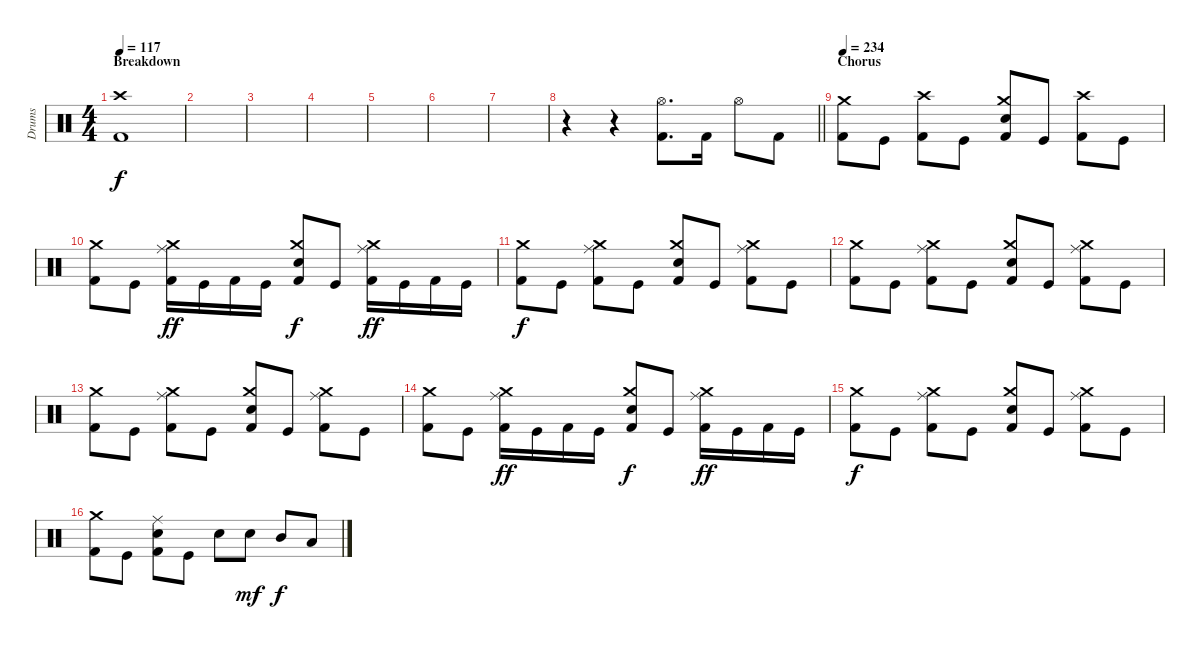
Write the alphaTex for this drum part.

\track ("Drums" "Drums") {instrument percussion}
\staff {score}
\articulation defaults
\ts (4 4)
\section ("" "Breakdown")
\tempo 117
\clef neutral
\ks c
("Crash high (hit)" "Kick (hit) 2").1{dy f} |
|
|
|
|
|
|
\barLineRight lightlight
r.4 r.4 ("Hi-Hat (open)" "Kick (hit) 2").8{d} "Kick (hit) 2".16 "Hi-Hat (open)".8 "Kick (hit) 2".8 |
\section ("" "Chorus")
\tempo 234
("Crash medium (hit)" "Kick (hit) 2").8 "Kick (hit)".8 ("Crash high (hit)" "Kick (hit) 2").8 "Kick (hit)".8 ("Crash medium (hit)" "Snare (hit) 2" "Kick (hit) 2").8 "Kick (hit)".8 ("Crash high (hit)" "Kick (hit) 2").8 "Kick (hit)".8 |
("Crash medium (hit)" "Kick (hit) 2").8 "Kick (hit)".8 ("Crash medium (hit)" "Ride (middle)" "Kick (hit) 2").16{dy ff} "Kick (hit)".16 "Kick (hit) 2".16 "Kick (hit)".16 ("Crash medium (hit)" "Snare (hit) 2" "Kick (hit) 2").8{dy f} "Kick (hit)".8 ("Crash medium (hit)" "Ride (middle)" "Kick (hit) 2").16{dy ff} "Kick (hit)".16 "Kick (hit) 2".16 "Kick (hit)".16 |
("Crash medium (hit)" "Kick (hit) 2").8{dy f} "Kick (hit)".8 ("Crash medium (hit)" "Ride (middle)" "Kick (hit) 2").8 "Kick (hit)".8 ("Crash medium (hit)" "Snare (hit) 2" "Kick (hit) 2").8 "Kick (hit)".8 ("Crash medium (hit)" "Ride (middle)" "Kick (hit) 2").8 "Kick (hit)".8 |
("Crash medium (hit)" "Kick (hit) 2").8 "Kick (hit)".8 ("Crash medium (hit)" "Ride (middle)" "Kick (hit) 2").8 "Kick (hit)".8 ("Crash medium (hit)" "Snare (hit) 2" "Kick (hit) 2").8 "Kick (hit)".8 ("Crash medium (hit)" "Ride (middle)" "Kick (hit) 2").8 "Kick (hit)".8 |
("Crash medium (hit)" "Kick (hit) 2").8 "Kick (hit)".8 ("Crash medium (hit)" "Ride (middle)" "Kick (hit) 2").8 "Kick (hit)".8 ("Crash medium (hit)" "Snare (hit) 2" "Kick (hit) 2").8 "Kick (hit)".8 ("Crash medium (hit)" "Ride (middle)" "Kick (hit) 2").8 "Kick (hit)".8 |
("Crash medium (hit)" "Kick (hit) 2").8 "Kick (hit)".8 ("Crash medium (hit)" "Ride (middle)" "Kick (hit) 2").16{dy ff} "Kick (hit)".16 "Kick (hit) 2".16 "Kick (hit)".16 ("Crash medium (hit)" "Snare (hit) 2" "Kick (hit) 2").8{dy f} "Kick (hit)".8 ("Crash medium (hit)" "Ride (middle)" "Kick (hit) 2").16{dy ff} "Kick (hit)".16 "Kick (hit) 2".16 "Kick (hit)".16 |
("Crash medium (hit)" "Kick (hit) 2").8{dy f} "Kick (hit)".8 ("Crash medium (hit)" "Ride (middle)" "Kick (hit) 2").8 "Kick (hit)".8 ("Crash medium (hit)" "Snare (hit) 2" "Kick (hit) 2").8 "Kick (hit)".8 ("Crash medium (hit)" "Ride (middle)" "Kick (hit) 2").8 "Kick (hit)".8 |
("Crash medium (hit)" "Kick (hit) 2").8 "Kick (hit)".8 ("Ride (middle)" "Snare (hit) 2" "Kick (hit) 2").8 "Kick (hit)".8 "Snare (hit) 2".8 "Snare (hit) 2".8{dy mf} "Mid Tom (hit)".8{dy f} "Low Tom (hit)".8
